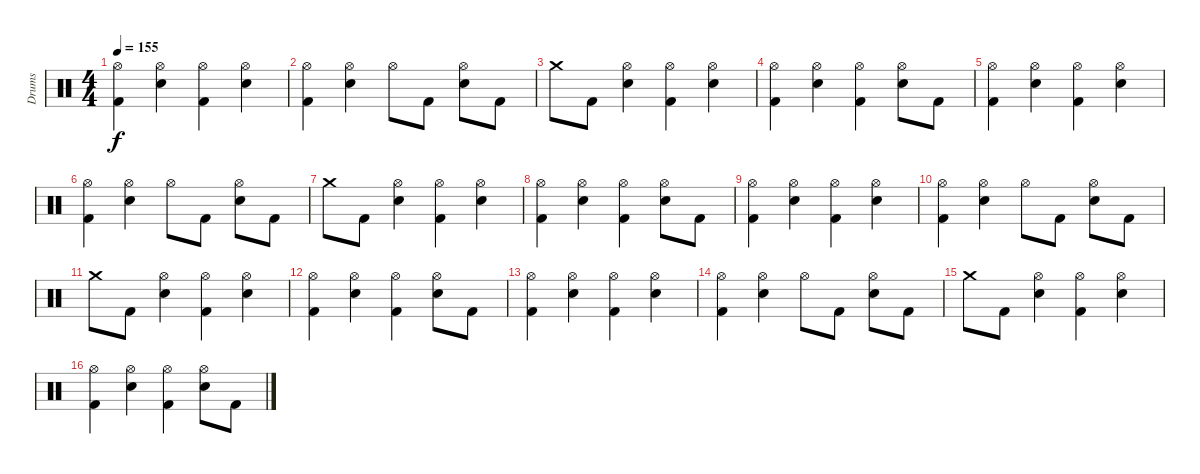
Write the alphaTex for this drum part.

\track ("Drums" "Drums") {instrument percussion}
\staff {score}
\articulation defaults
\ts (4 4)
\tempo 155
\clef neutral
\ks c
("Hi-Hat (open)" "Kick (hit) 2").4{dy f} ("Hi-Hat (open)" "Snare (hit) 2").4 ("Hi-Hat (open)" "Kick (hit) 2").4 ("Hi-Hat (open)" "Snare (hit) 2").4 |
("Hi-Hat (open)" "Kick (hit) 2").4 ("Hi-Hat (open)" "Snare (hit) 2").4 "Hi-Hat (open)".8 "Kick (hit) 2".8 ("Hi-Hat (open)" "Snare (hit) 2").8 "Kick (hit) 2".8 |
"Crash medium (hit)".8 "Kick (hit) 2".8 ("Hi-Hat (open)" "Snare (hit) 2").4 ("Hi-Hat (open)" "Kick (hit) 2").4 ("Hi-Hat (open)" "Snare (hit) 2").4 |
("Hi-Hat (open)" "Kick (hit) 2").4 ("Hi-Hat (open)" "Snare (hit) 2").4 ("Hi-Hat (open)" "Kick (hit) 2").4 ("Hi-Hat (open)" "Snare (hit) 2").8 "Kick (hit) 2".8 |
("Hi-Hat (open)" "Kick (hit) 2").4 ("Hi-Hat (open)" "Snare (hit) 2").4 ("Hi-Hat (open)" "Kick (hit) 2").4 ("Hi-Hat (open)" "Snare (hit) 2").4 |
("Hi-Hat (open)" "Kick (hit) 2").4 ("Hi-Hat (open)" "Snare (hit) 2").4 "Hi-Hat (open)".8 "Kick (hit) 2".8 ("Hi-Hat (open)" "Snare (hit) 2").8 "Kick (hit) 2".8 |
"Crash medium (hit)".8 "Kick (hit) 2".8 ("Hi-Hat (open)" "Snare (hit) 2").4 ("Hi-Hat (open)" "Kick (hit) 2").4 ("Hi-Hat (open)" "Snare (hit) 2").4 |
("Hi-Hat (open)" "Kick (hit) 2").4 ("Hi-Hat (open)" "Snare (hit) 2").4 ("Hi-Hat (open)" "Kick (hit) 2").4 ("Hi-Hat (open)" "Snare (hit) 2").8 "Kick (hit) 2".8 |
("Hi-Hat (open)" "Kick (hit) 2").4 ("Hi-Hat (open)" "Snare (hit) 2").4 ("Hi-Hat (open)" "Kick (hit) 2").4 ("Hi-Hat (open)" "Snare (hit) 2").4 |
("Hi-Hat (open)" "Kick (hit) 2").4 ("Hi-Hat (open)" "Snare (hit) 2").4 "Hi-Hat (open)".8 "Kick (hit) 2".8 ("Hi-Hat (open)" "Snare (hit) 2").8 "Kick (hit) 2".8 |
"Crash medium (hit)".8 "Kick (hit) 2".8 ("Hi-Hat (open)" "Snare (hit) 2").4 ("Hi-Hat (open)" "Kick (hit) 2").4 ("Hi-Hat (open)" "Snare (hit) 2").4 |
("Hi-Hat (open)" "Kick (hit) 2").4 ("Hi-Hat (open)" "Snare (hit) 2").4 ("Hi-Hat (open)" "Kick (hit) 2").4 ("Hi-Hat (open)" "Snare (hit) 2").8 "Kick (hit) 2".8 |
("Hi-Hat (open)" "Kick (hit) 2").4 ("Hi-Hat (open)" "Snare (hit) 2").4 ("Hi-Hat (open)" "Kick (hit) 2").4 ("Hi-Hat (open)" "Snare (hit) 2").4 |
("Hi-Hat (open)" "Kick (hit) 2").4 ("Hi-Hat (open)" "Snare (hit) 2").4 "Hi-Hat (open)".8 "Kick (hit) 2".8 ("Hi-Hat (open)" "Snare (hit) 2").8 "Kick (hit) 2".8 |
"Crash medium (hit)".8 "Kick (hit) 2".8 ("Hi-Hat (open)" "Snare (hit) 2").4 ("Hi-Hat (open)" "Kick (hit) 2").4 ("Hi-Hat (open)" "Snare (hit) 2").4 |
("Hi-Hat (open)" "Kick (hit) 2").4 ("Hi-Hat (open)" "Snare (hit) 2").4 ("Hi-Hat (open)" "Kick (hit) 2").4 ("Hi-Hat (open)" "Snare (hit) 2").8 "Kick (hit) 2".8
